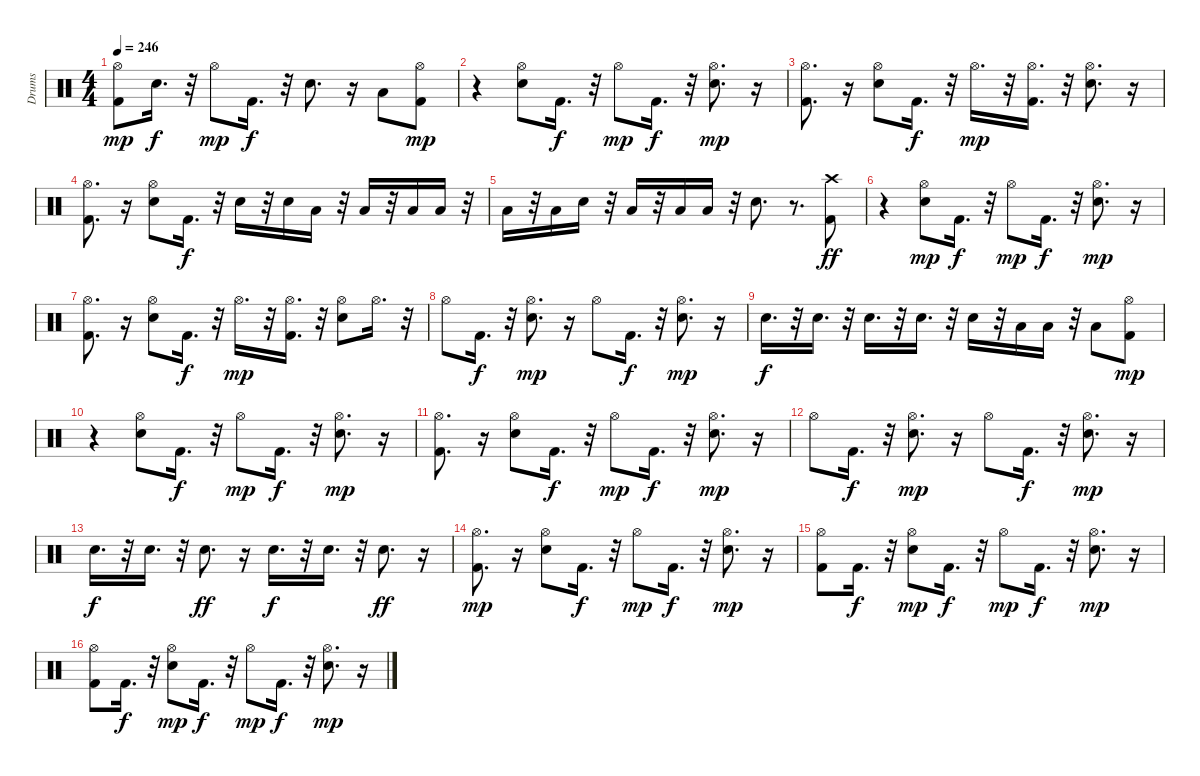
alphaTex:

\track ("Drums" "Drums") {instrument percussion}
\staff {score}
\articulation defaults
\ts (4 4)
\tempo 246
\clef neutral
\ks c
("Kick (hit) 2" "Hi-Hat (open)").8{dy mp} "Electric Snare (hit)".16{d dy f} r.32 "Hi-Hat (open)".8{dy mp} "Kick (hit) 2".16{d dy f} r.32 "Electric Snare (hit)".8{d} r.16 "Low Tom (hit)".8 ("Kick (hit) 2" "Hi-Hat (open)").8{dy mp} |
r.4 ("Electric Snare (hit)" "Hi-Hat (open)").8 "Kick (hit) 2".16{d dy f} r.32 "Hi-Hat (open)".8{dy mp} "Kick (hit) 2".16{d dy f} r.32 ("Electric Snare (hit)" "Hi-Hat (open)").8{d dy mp} r.16 |
("Kick (hit) 2" "Hi-Hat (open)").8{d} r.16 ("Electric Snare (hit)" "Hi-Hat (open)").8 "Kick (hit) 2".16{d dy f} r.32 "Hi-Hat (open)".16{d dy mp} r.32 ("Kick (hit) 2" "Hi-Hat (open)").16{d} r.32 ("Electric Snare (hit)" "Hi-Hat (open)").8{d} r.16 |
("Kick (hit) 2" "Hi-Hat (open)").8{d} r.16 ("Electric Snare (hit)" "Hi-Hat (open)").8 "Kick (hit) 2".16{d dy f} r.32 "Electric Snare (hit)".16 r.32 "Electric Snare (hit)".16 "Low Tom (hit)".16 r.32 "Low Tom (hit)".16 r.32 "Low Tom (hit)".16 "Low Tom (hit)".16 r.32 |
"Low Tom (hit)".16 r.32 "Low Tom (hit)".16 "Electric Snare (hit)".16 r.32 "Low Tom (hit)".16 r.32 "Low Tom (hit)".16 "Low Tom (hit)".16 r.32 "Electric Snare (hit)".8{d} r.8{d} ("Kick (hit) 2" "Crash high (hit)").8{dy ff} |
r.4 ("Electric Snare (hit)" "Hi-Hat (open)").8{dy mp} "Kick (hit) 2".16{d dy f} r.32 "Hi-Hat (open)".8{dy mp} "Kick (hit) 2".16{d dy f} r.32 ("Electric Snare (hit)" "Hi-Hat (open)").8{d dy mp} r.16 |
("Kick (hit) 2" "Hi-Hat (open)").8{d} r.16 ("Electric Snare (hit)" "Hi-Hat (open)").8 "Kick (hit) 2".16{d dy f} r.32 "Hi-Hat (open)".16{d dy mp} r.32 ("Kick (hit) 2" "Hi-Hat (open)").16{d} r.32 ("Electric Snare (hit)" "Hi-Hat (open)").8 "Hi-Hat (open)".16{d} r.32 |
"Hi-Hat (open)".8 "Kick (hit) 2".16{d dy f} r.32 ("Electric Snare (hit)" "Hi-Hat (open)").8{d dy mp} r.16 "Hi-Hat (open)".8 "Kick (hit) 2".16{d dy f} r.32 ("Electric Snare (hit)" "Hi-Hat (open)").8{d dy mp} r.16 |
"Electric Snare (hit)".16{d dy f} r.32 "Electric Snare (hit)".16{d} r.32 "Electric Snare (hit)".16{d} r.32 "Electric Snare (hit)".16{d} r.32 "Electric Snare (hit)".16 r.32 "Low Tom (hit)".16 "Low Tom (hit)".16 r.32 "Low Tom (hit)".8 ("Kick (hit) 2" "Hi-Hat (open)").8{dy mp} |
r.4 ("Electric Snare (hit)" "Hi-Hat (open)").8 "Kick (hit) 2".16{d dy f} r.32 "Hi-Hat (open)".8{dy mp} "Kick (hit) 2".16{d dy f} r.32 ("Electric Snare (hit)" "Hi-Hat (open)").8{d dy mp} r.16 |
("Kick (hit) 2" "Hi-Hat (open)").8{d} r.16 ("Electric Snare (hit)" "Hi-Hat (open)").8 "Kick (hit) 2".16{d dy f} r.32 "Hi-Hat (open)".8{dy mp} "Kick (hit) 2".16{d dy f} r.32 ("Electric Snare (hit)" "Hi-Hat (open)").8{d dy mp} r.16 |
"Hi-Hat (open)".8 "Kick (hit) 2".16{d dy f} r.32 ("Electric Snare (hit)" "Hi-Hat (open)").8{d dy mp} r.16 "Hi-Hat (open)".8 "Kick (hit) 2".16{d dy f} r.32 ("Electric Snare (hit)" "Hi-Hat (open)").8{d dy mp} r.16 |
"Electric Snare (hit)".16{d dy f} r.32 "Electric Snare (hit)".16{d} r.32 "Electric Snare (hit)".8{d dy ff} r.16 "Electric Snare (hit)".16{d dy f} r.32 "Electric Snare (hit)".16{d} r.32 "Electric Snare (hit)".8{d dy ff} r.16 |
("Kick (hit) 2" "Hi-Hat (open)").8{d dy mp} r.16 ("Electric Snare (hit)" "Hi-Hat (open)").8 "Kick (hit) 2".16{d dy f} r.32 "Hi-Hat (open)".8{dy mp} "Kick (hit) 2".16{d dy f} r.32 ("Electric Snare (hit)" "Hi-Hat (open)").8{d dy mp} r.16 |
("Kick (hit) 2" "Hi-Hat (open)").8 "Kick (hit) 2".16{d dy f} r.32 ("Electric Snare (hit)" "Hi-Hat (open)").8{dy mp} "Kick (hit) 2".16{d dy f} r.32 "Hi-Hat (open)".8{dy mp} "Kick (hit) 2".16{d dy f} r.32 ("Electric Snare (hit)" "Hi-Hat (open)").8{d dy mp} r.16 |
("Kick (hit) 2" "Hi-Hat (open)").8 "Kick (hit) 2".16{d dy f} r.32 ("Electric Snare (hit)" "Hi-Hat (open)").8{dy mp} "Kick (hit) 2".16{d dy f} r.32 "Hi-Hat (open)".8{dy mp} "Kick (hit) 2".16{d dy f} r.32 ("Electric Snare (hit)" "Hi-Hat (open)").8{d dy mp} r.16
